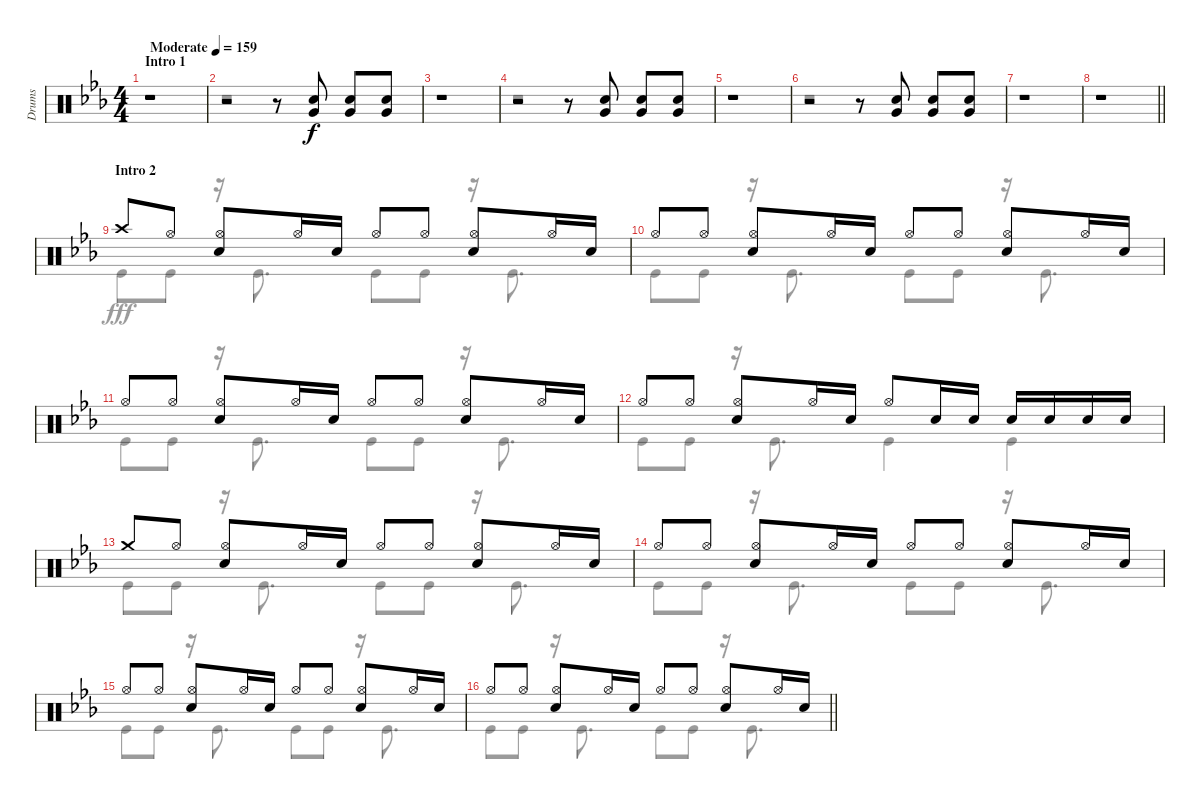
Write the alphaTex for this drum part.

\track ("Drums" "Drums") {instrument percussion}
\staff {score}
\articulation defaults
\voice
\ts (4 4)
\section ("" "Intro 1")
\tempo (159 "Moderate")
\clef neutral
\ks eb
r.1{dy f} |
r.2 r.8 ("Snare (hit) 2" "Very Low Tom (hit)").8 ("Snare (hit) 2" "Very Low Tom (hit)").8 ("Snare (hit) 2" "Very Low Tom (hit)").8 |
r.1 |
r.2 r.8 ("Snare (hit) 2" "Very Low Tom (hit)").8 ("Snare (hit) 2" "Very Low Tom (hit)").8 ("Snare (hit) 2" "Very Low Tom (hit)").8 |
r.1 |
r.2 r.8 ("Snare (hit) 2" "Very Low Tom (hit)").8 ("Snare (hit) 2" "Very Low Tom (hit)").8 ("Snare (hit) 2" "Very Low Tom (hit)").8 |
r.1 |
\barLineRight lightlight
r.1 |
\section ("" "Intro 2")
"Crash high (hit)".8 "Hi-Hat (open)".8 ("Hi-Hat (open)" "Snare (hit) 2").8 "Hi-Hat (open)".16 "Snare (hit) 2".16 "Hi-Hat (open)".8 "Hi-Hat (open)".8 ("Hi-Hat (open)" "Snare (hit) 2").8 "Hi-Hat (open)".16 "Snare (hit) 2".16 |
"Hi-Hat (open)".8 "Hi-Hat (open)".8 ("Hi-Hat (open)" "Snare (hit) 2").8 "Hi-Hat (open)".16 "Snare (hit) 2".16 "Hi-Hat (open)".8 "Hi-Hat (open)".8 ("Hi-Hat (open)" "Snare (hit) 2").8 "Hi-Hat (open)".16 "Snare (hit) 2".16 |
"Hi-Hat (open)".8 "Hi-Hat (open)".8 ("Hi-Hat (open)" "Snare (hit) 2").8 "Hi-Hat (open)".16 "Snare (hit) 2".16 "Hi-Hat (open)".8 "Hi-Hat (open)".8 ("Hi-Hat (open)" "Snare (hit) 2").8 "Hi-Hat (open)".16 "Snare (hit) 2".16 |
"Hi-Hat (open)".8 "Hi-Hat (open)".8 ("Hi-Hat (open)" "Snare (hit) 2").8 "Hi-Hat (open)".16 "Snare (hit) 2".16 "Hi-Hat (open)".8 "Snare (hit) 2".16 "Snare (hit) 2".16 "Snare (hit) 2".16 "Snare (hit) 2".16 "Snare (hit) 2".16 "Snare (hit) 2".16 |
"Crash medium (hit)".8 "Hi-Hat (open)".8 ("Hi-Hat (open)" "Snare (hit) 2").8 "Hi-Hat (open)".16 "Snare (hit) 2".16 "Hi-Hat (open)".8 "Hi-Hat (open)".8 ("Hi-Hat (open)" "Snare (hit) 2").8 "Hi-Hat (open)".16 "Snare (hit) 2".16 |
"Hi-Hat (open)".8 "Hi-Hat (open)".8 ("Hi-Hat (open)" "Snare (hit) 2").8 "Hi-Hat (open)".16 "Snare (hit) 2".16 "Hi-Hat (open)".8 "Hi-Hat (open)".8 ("Hi-Hat (open)" "Snare (hit) 2").8 "Hi-Hat (open)".16 "Snare (hit) 2".16 |
"Hi-Hat (open)".8 "Hi-Hat (open)".8 ("Hi-Hat (open)" "Snare (hit) 2").8 "Hi-Hat (open)".16 "Snare (hit) 2".16 "Hi-Hat (open)".8 "Hi-Hat (open)".8 ("Hi-Hat (open)" "Snare (hit) 2").8 "Hi-Hat (open)".16 "Snare (hit) 2".16 |
\barLineRight lightlight "Hi-Hat (open)".8 "Hi-Hat (open)".8
("Hi-Hat (open)" "Snare (hit) 2").8 "Hi-Hat (open)".16 "Snare (hit) 2".16 "Hi-Hat (open)".8 "Hi-Hat (open)".8 ("Hi-Hat (open)" "Snare (hit) 2").8 "Hi-Hat (open)".16 "Snare (hit) 2".16
\voice
\clef neutral
\ottava regular
\simile none
\ks eb
r.1{dy fff} |
r.1 |
r.1 |
r.1 |
r.1 |
r.1 |
r.1 |
\barLineRight lightlight
r.1 |
"Kick (hit)".8 "Kick (hit)".8 r.16 "Kick (hit)".8{d} "Kick (hit)".8 "Kick (hit)".8 r.16 "Kick (hit)".8{d} |
"Kick (hit)".8 "Kick (hit)".8 r.16 "Kick (hit)".8{d} "Kick (hit)".8 "Kick (hit)".8 r.16 "Kick (hit)".8{d} |
"Kick (hit)".8 "Kick (hit)".8 r.16 "Kick (hit)".8{d} "Kick (hit)".8 "Kick (hit)".8 r.16 "Kick (hit)".8{d} |
"Kick (hit)".8 "Kick (hit)".8 r.16 "Kick (hit)".8{d} "Kick (hit)".4 "Kick (hit)".4 |
"Kick (hit)".8 "Kick (hit)".8 r.16 "Kick (hit)".8{d} "Kick (hit)".8 "Kick (hit)".8 r.16 "Kick (hit)".8{d} |
"Kick (hit)".8 "Kick (hit)".8 r.16 "Kick (hit)".8{d} "Kick (hit)".8 "Kick (hit)".8 r.16 "Kick (hit)".8{d} |
"Kick (hit)".8 "Kick (hit)".8 r.16 "Kick (hit)".8{d} "Kick (hit)".8 "Kick (hit)".8 r.16 "Kick (hit)".8{d} |
\barLineRight lightlight "Kick (hit)".8 "Kick (hit)".8
r.16 "Kick (hit)".8{d} "Kick (hit)".8 "Kick (hit)".8 r.16 "Kick (hit)".8{d}
